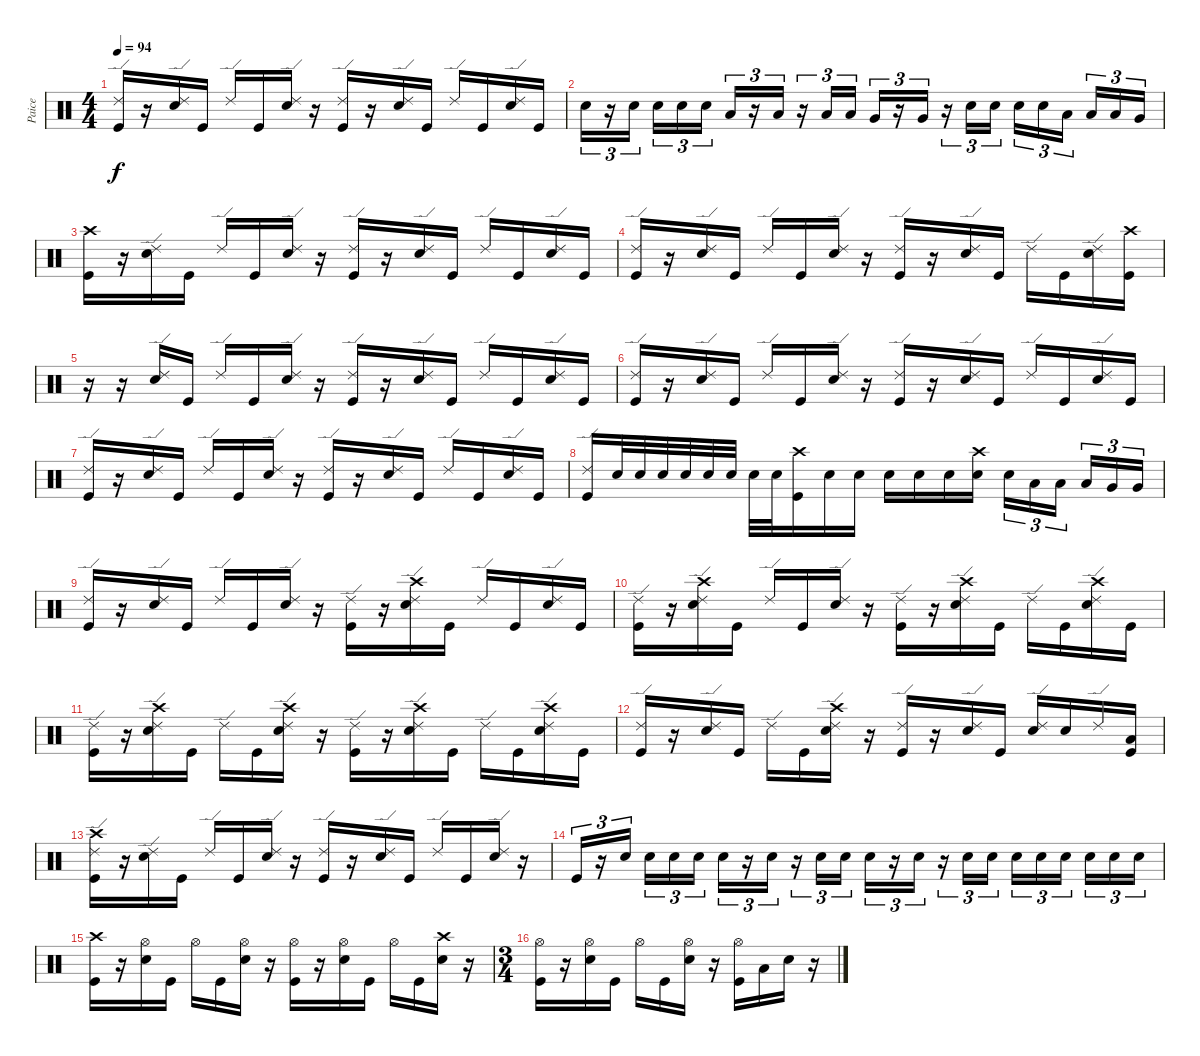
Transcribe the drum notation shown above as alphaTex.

\track ("Paice" "Paice") {instrument percussion}
\staff {score}
\articulation defaults
\ts (4 4)
\tempo 94
\clef neutral
\ks c
("Ride (edge) 2" "Kick (hit)").16{dy f} r.16 ("Ride (edge) 2" "Snare (hit) 2").16 "Kick (hit)".16 "Ride (edge) 2".16 "Kick (hit)".16 ("Ride (edge) 2" "Snare (hit) 2").16 r.16 ("Ride (edge) 2" "Kick (hit)").16 r.16 ("Ride (edge) 2" "Snare (hit) 2").16 "Kick (hit)".16 "Ride (edge) 2".16 "Kick (hit)".16 ("Ride (edge) 2" "Snare (hit) 2").16 "Kick (hit)".16 |
"Snare (hit) 2".16{tu (3 2)} r.16{tu (3 2)} "Snare (hit) 2".16{tu (3 2)} "Snare (hit) 2".16{tu (3 2)} "Snare (hit) 2".16{tu (3 2)} "Snare (hit) 2".16{tu (3 2)} "Low Tom (hit)".16{tu (3 2)} r.16{tu (3 2)} "Low Tom (hit)".16{tu (3 2)} r.16{tu (3 2)} "Low Tom (hit)".16{tu (3 2)} "Low Tom (hit)".16{tu (3 2)} "Very Low Tom (hit)".16{tu (3 2)} r.16{tu (3 2)} "Very Low Tom (hit)".16{tu (3 2)} r.16{tu (3 2)} "Snare (hit) 2".16{tu (3 2)} "Snare (hit) 2".16{tu (3 2)} "Snare (hit) 2".16{tu (3 2)} "Snare (hit) 2".16{tu (3 2)} "Low Tom (hit)".16{tu (3 2)} "Low Tom (hit)".16{tu (3 2)} "Low Tom (hit)".16{tu (3 2)} "Very Low Tom (hit)".16{tu (3 2)} |
("Crash high (hit)" "Kick (hit)").16 r.16 ("Ride (edge) 2" "Snare (hit) 2").16 "Kick (hit)".16 "Ride (edge) 2".16 "Kick (hit)".16 ("Ride (edge) 2" "Snare (hit) 2").16 r.16 ("Ride (edge) 2" "Kick (hit)").16 r.16 ("Ride (edge) 2" "Snare (hit) 2").16 "Kick (hit)".16 "Ride (edge) 2".16 "Kick (hit)".16 ("Ride (edge) 2" "Snare (hit) 2").16 "Kick (hit)".16 |
("Ride (edge) 2" "Kick (hit)").16 r.16 ("Ride (edge) 2" "Snare (hit) 2").16 "Kick (hit)".16 "Ride (edge) 2".16 "Kick (hit)".16 ("Ride (edge) 2" "Snare (hit) 2").16 r.16 ("Ride (edge) 2" "Kick (hit)").16 r.16 ("Ride (edge) 2" "Snare (hit) 2").16 "Kick (hit)".16 "Ride (edge) 2".16 "Kick (hit)".16 ("Ride (edge) 2" "Snare (hit) 2").16 ("Crash high (hit)" "Kick (hit)").16 |
r.16 r.16 ("Ride (edge) 2" "Snare (hit) 2").16 "Kick (hit)".16 "Ride (edge) 2".16 "Kick (hit)".16 ("Ride (edge) 2" "Snare (hit) 2").16 r.16 ("Ride (edge) 2" "Kick (hit)").16 r.16 ("Ride (edge) 2" "Snare (hit) 2").16 "Kick (hit)".16 "Ride (edge) 2".16 "Kick (hit)".16 ("Ride (edge) 2" "Snare (hit) 2").16 "Kick (hit)".16 |
("Ride (edge) 2" "Kick (hit)").16 r.16 ("Ride (edge) 2" "Snare (hit) 2").16 "Kick (hit)".16 "Ride (edge) 2".16 "Kick (hit)".16 ("Ride (edge) 2" "Snare (hit) 2").16 r.16 ("Ride (edge) 2" "Kick (hit)").16 r.16 ("Ride (edge) 2" "Snare (hit) 2").16 "Kick (hit)".16 "Ride (edge) 2".16 "Kick (hit)".16 ("Ride (edge) 2" "Snare (hit) 2").16 "Kick (hit)".16 |
("Ride (edge) 2" "Kick (hit)").16 r.16 ("Ride (edge) 2" "Snare (hit) 2").16 "Kick (hit)".16 "Ride (edge) 2".16 "Kick (hit)".16 ("Ride (edge) 2" "Snare (hit) 2").16 r.16 ("Ride (edge) 2" "Kick (hit)").16 r.16 ("Ride (edge) 2" "Snare (hit) 2").16 "Kick (hit)".16 "Ride (edge) 2".16 "Kick (hit)".16 ("Ride (edge) 2" "Snare (hit) 2").16 "Kick (hit)".16 |
("Ride (edge) 2" "Kick (hit)").16 "Snare (hit) 2".32 "Snare (hit) 2".32 "Snare (hit) 2".32 "Snare (hit) 2".32 "Snare (hit) 2".32 "Snare (hit) 2".32 "Snare (hit) 2".32 "Snare (hit) 2".32 ("Crash high (hit)" "Kick (hit)").16 "Snare (hit) 2".16 "Snare (hit) 2".16 "Snare (hit) 2".16 "Snare (hit) 2".16 "Snare (hit) 2".16 ("Crash high (hit)" "Snare (hit) 2").16 "Snare (hit) 2".16{tu (3 2)} "Low Tom (hit)".16{tu (3 2)} "Low Tom (hit)".16{tu (3 2)} "Low Tom (hit)".16{tu (3 2)} "Very Low Tom (hit)".16{tu (3 2)} "Very Low Tom (hit)".16{tu (3 2)} |
("Ride (edge) 2" "Kick (hit)").16 r.16 ("Ride (edge) 2" "Snare (hit) 2").16 "Kick (hit)".16 "Ride (edge) 2".16 "Kick (hit)".16 ("Ride (edge) 2" "Snare (hit) 2").16 r.16 ("Ride (edge) 2" "Kick (hit)").16 r.16 ("Crash high (hit)" "Ride (edge) 2" "Snare (hit) 2").16 "Kick (hit)".16 "Ride (edge) 2".16 "Kick (hit)".16 ("Ride (edge) 2" "Snare (hit) 2").16 "Kick (hit)".16 |
("Ride (edge) 2" "Kick (hit)").16 r.16 ("Crash high (hit)" "Ride (edge) 2" "Snare (hit) 2").16 "Kick (hit)".16 "Ride (edge) 2".16 "Kick (hit)".16 ("Ride (edge) 2" "Snare (hit) 2").16 r.16 ("Ride (edge) 2" "Kick (hit)").16 r.16 ("Crash high (hit)" "Ride (edge) 2" "Snare (hit) 2").16 "Kick (hit)".16 "Ride (edge) 2".16 "Kick (hit)".16 ("Crash high (hit)" "Ride (edge) 2" "Snare (hit) 2").16 "Kick (hit)".16 |
("Ride (edge) 2" "Kick (hit)").16 r.16 ("Crash high (hit)" "Ride (edge) 2" "Snare (hit) 2").16 "Kick (hit)".16 "Ride (edge) 2".16 "Kick (hit)".16 ("Crash high (hit)" "Ride (edge) 2" "Snare (hit) 2").16 r.16 ("Ride (edge) 2" "Kick (hit)").16 r.16 ("Crash high (hit)" "Ride (edge) 2" "Snare (hit) 2").16 "Kick (hit)".16 "Ride (edge) 2".16 "Kick (hit)".16 ("Crash high (hit)" "Ride (edge) 2" "Snare (hit) 2").16 "Kick (hit)".16 |
("Ride (edge) 2" "Kick (hit)").16 r.16 ("Ride (edge) 2" "Snare (hit) 2").16 "Kick (hit)".16 "Ride (edge) 2".16 "Kick (hit)".16 ("Crash high (hit)" "Ride (edge) 2" "Snare (hit) 2").16 r.16 ("Ride (edge) 2" "Kick (hit)").16 r.16 ("Ride (edge) 2" "Snare (hit) 2").16 "Kick (hit)".16 ("Ride (edge) 2" "Snare (hit) 2").16 "Snare (hit) 2".16 "Ride (edge) 2".16 ("Low Floor Tom (hit)" "Kick (hit)").16 |
("Crash high (hit)" "Ride (edge) 2" "Kick (hit)").16 r.16 ("Ride (edge) 2" "Snare (hit) 2").16 "Kick (hit)".16 "Ride (edge) 2".16 "Kick (hit)".16 ("Ride (edge) 2" "Snare (hit) 2").16 r.16 ("Ride (edge) 2" "Kick (hit)").16 r.16 ("Ride (edge) 2" "Snare (hit) 2").16 "Kick (hit)".16 "Ride (edge) 2".16 "Kick (hit)".16 ("Ride (edge) 2" "Snare (hit) 2").16 r.16 |
"Kick (hit)".16{tu (3 2)} r.16{tu (3 2)} "Snare (hit) 2".16{tu (3 2)} "Snare (hit) 2".16{tu (3 2)} "Snare (hit) 2".16{tu (3 2)} "Snare (hit) 2".16{tu (3 2)} "Snare (hit) 2".16{tu (3 2)} r.16{tu (3 2)} "Snare (hit) 2".16{tu (3 2)} r.16{tu (3 2)} "Snare (hit) 2".16{tu (3 2)} "Snare (hit) 2".16{tu (3 2)} "Snare (hit) 2".16{tu (3 2)} r.16{tu (3 2)} "Snare (hit) 2".16{tu (3 2)} r.16{tu (3 2)} "Snare (hit) 2".16{tu (3 2)} "Snare (hit) 2".16{tu (3 2)} "Snare (hit) 2".16{tu (3 2)} "Snare (hit) 2".16{tu (3 2)} "Snare (hit) 2".16{tu (3 2)} "Snare (hit) 2".16{tu (3 2)} "Snare (hit) 2".16{tu (3 2)} "Snare (hit) 2".16{tu (3 2)} |
("Crash high (hit)" "Kick (hit)").16 r.16 ("Hi-Hat (open)" "Snare (hit) 2").16 "Kick (hit)".16 "Hi-Hat (open)".16 "Kick (hit)".16 ("Hi-Hat (open)" "Snare (hit) 2").16 r.16 ("Hi-Hat (open)" "Kick (hit)").16 r.16 ("Hi-Hat (open)" "Snare (hit) 2").16 "Kick (hit)".16 "Hi-Hat (open)".16 "Kick (hit)".16 ("Crash high (hit)" "Snare (hit) 2").16 r.16 |
\ts (3 4)
("Hi-Hat (open)" "Kick (hit)").16 r.16 ("Hi-Hat (open)" "Snare (hit) 2").16 "Kick (hit)".16 "Hi-Hat (open)".16 "Kick (hit)".16 ("Hi-Hat (open)" "Snare (hit) 2").16 r.16 ("Hi-Hat (open)" "Kick (hit)").16 "Low Tom (hit)".16 "Snare (hit) 2".16 r.16
